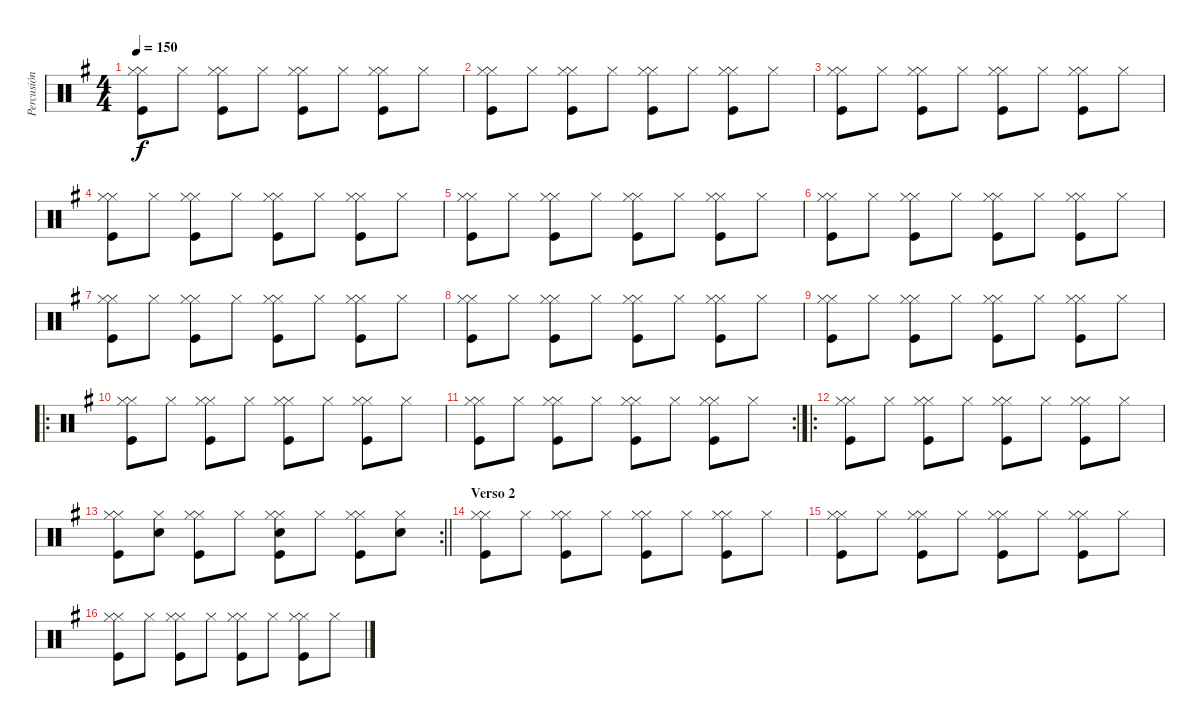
\track ("Percusión" "Percusión") {instrument percussion}
\staff {score}
\articulation defaults
\ts (4 4)
\tempo 150
\clef neutral
\ks g
("Hi-Hat (closed)" "Kick (hit)" "Hi-Hat (closed)").8{dy f} "Hi-Hat (closed)".8 ("Hi-Hat (closed)" "Kick (hit)" "Hi-Hat (closed)").8 "Hi-Hat (closed)".8 ("Hi-Hat (closed)" "Kick (hit)" "Hi-Hat (closed)").8 "Hi-Hat (closed)".8 ("Hi-Hat (closed)" "Kick (hit)" "Hi-Hat (closed)").8 "Hi-Hat (closed)".8 |
("Hi-Hat (closed)" "Kick (hit)" "Hi-Hat (closed)").8 "Hi-Hat (closed)".8 ("Hi-Hat (closed)" "Kick (hit)" "Hi-Hat (closed)").8 "Hi-Hat (closed)".8 ("Hi-Hat (closed)" "Kick (hit)" "Hi-Hat (closed)").8 "Hi-Hat (closed)".8 ("Hi-Hat (closed)" "Kick (hit)" "Hi-Hat (closed)").8 "Hi-Hat (closed)".8 |
("Hi-Hat (closed)" "Kick (hit)" "Hi-Hat (closed)").8 "Hi-Hat (closed)".8 ("Hi-Hat (closed)" "Kick (hit)" "Hi-Hat (closed)").8 "Hi-Hat (closed)".8 ("Hi-Hat (closed)" "Kick (hit)" "Hi-Hat (closed)").8 "Hi-Hat (closed)".8 ("Hi-Hat (closed)" "Kick (hit)" "Hi-Hat (closed)").8 "Hi-Hat (closed)".8 |
("Hi-Hat (closed)" "Kick (hit)" "Hi-Hat (closed)").8 "Hi-Hat (closed)".8 ("Hi-Hat (closed)" "Kick (hit)" "Hi-Hat (closed)").8 "Hi-Hat (closed)".8 ("Hi-Hat (closed)" "Kick (hit)" "Hi-Hat (closed)").8 "Hi-Hat (closed)".8 ("Hi-Hat (closed)" "Kick (hit)" "Hi-Hat (closed)").8 "Hi-Hat (closed)".8 |
("Hi-Hat (closed)" "Kick (hit)" "Hi-Hat (closed)").8 "Hi-Hat (closed)".8 ("Hi-Hat (closed)" "Kick (hit)" "Hi-Hat (closed)").8 "Hi-Hat (closed)".8 ("Hi-Hat (closed)" "Kick (hit)" "Hi-Hat (closed)").8 "Hi-Hat (closed)".8 ("Hi-Hat (closed)" "Kick (hit)" "Hi-Hat (closed)").8 "Hi-Hat (closed)".8 |
("Hi-Hat (closed)" "Kick (hit)" "Hi-Hat (closed)").8 "Hi-Hat (closed)".8 ("Hi-Hat (closed)" "Kick (hit)" "Hi-Hat (closed)").8 "Hi-Hat (closed)".8 ("Hi-Hat (closed)" "Kick (hit)" "Hi-Hat (closed)").8 "Hi-Hat (closed)".8 ("Hi-Hat (closed)" "Kick (hit)" "Hi-Hat (closed)").8 "Hi-Hat (closed)".8 |
("Hi-Hat (closed)" "Kick (hit)" "Hi-Hat (closed)").8 "Hi-Hat (closed)".8 ("Hi-Hat (closed)" "Kick (hit)" "Hi-Hat (closed)").8 "Hi-Hat (closed)".8 ("Hi-Hat (closed)" "Kick (hit)" "Hi-Hat (closed)").8 "Hi-Hat (closed)".8 ("Hi-Hat (closed)" "Kick (hit)" "Hi-Hat (closed)").8 "Hi-Hat (closed)".8 |
("Hi-Hat (closed)" "Kick (hit)" "Hi-Hat (closed)").8 "Hi-Hat (closed)".8 ("Hi-Hat (closed)" "Kick (hit)" "Hi-Hat (closed)").8 "Hi-Hat (closed)".8 ("Hi-Hat (closed)" "Kick (hit)" "Hi-Hat (closed)").8 "Hi-Hat (closed)".8 ("Hi-Hat (closed)" "Kick (hit)" "Hi-Hat (closed)").8 "Hi-Hat (closed)".8 |
("Hi-Hat (closed)" "Kick (hit)" "Hi-Hat (closed)").8 "Hi-Hat (closed)".8 ("Hi-Hat (closed)" "Kick (hit)" "Hi-Hat (closed)").8 "Hi-Hat (closed)".8 ("Hi-Hat (closed)" "Kick (hit)" "Hi-Hat (closed)").8 "Hi-Hat (closed)".8 ("Hi-Hat (closed)" "Kick (hit)" "Hi-Hat (closed)").8 "Hi-Hat (closed)".8 |
\ro
("Hi-Hat (closed)" "Kick (hit)" "Hi-Hat (closed)").8 "Hi-Hat (closed)".8 ("Hi-Hat (closed)" "Kick (hit)" "Hi-Hat (closed)").8 "Hi-Hat (closed)".8 ("Hi-Hat (closed)" "Kick (hit)" "Hi-Hat (closed)").8 "Hi-Hat (closed)".8 ("Hi-Hat (closed)" "Kick (hit)" "Hi-Hat (closed)").8 "Hi-Hat (closed)".8 |
\rc 2
("Hi-Hat (closed)" "Kick (hit)" "Hi-Hat (closed)").8 "Hi-Hat (closed)".8 ("Hi-Hat (closed)" "Kick (hit)" "Hi-Hat (closed)").8 "Hi-Hat (closed)".8 ("Hi-Hat (closed)" "Kick (hit)" "Hi-Hat (closed)").8 "Hi-Hat (closed)".8 ("Hi-Hat (closed)" "Kick (hit)" "Hi-Hat (closed)").8 "Hi-Hat (closed)".8 |
\ro
("Hi-Hat (closed)" "Kick (hit)" "Hi-Hat (closed)").8 "Hi-Hat (closed)".8 ("Hi-Hat (closed)" "Kick (hit)" "Hi-Hat (closed)").8 "Hi-Hat (closed)".8 ("Hi-Hat (closed)" "Kick (hit)" "Hi-Hat (closed)").8 "Hi-Hat (closed)".8 ("Hi-Hat (closed)" "Kick (hit)" "Hi-Hat (closed)").8 "Hi-Hat (closed)".8 |
\rc 2
\barLineRight lightlight
("Hi-Hat (closed)" "Kick (hit)" "Hi-Hat (closed)").8 ("Hi-Hat (closed)" "Snare (hit) 2").8 ("Hi-Hat (closed)" "Kick (hit)" "Hi-Hat (closed)").8 "Hi-Hat (closed)".8 ("Hi-Hat (closed)" "Kick (hit)" "Hi-Hat (closed)" "Snare (hit) 2").8 "Hi-Hat (closed)".8 ("Hi-Hat (closed)" "Kick (hit)" "Hi-Hat (closed)").8 ("Hi-Hat (closed)" "Snare (hit) 2").8 |
\section ("" "Verso 2")
("Hi-Hat (closed)" "Kick (hit)" "Hi-Hat (closed)").8 "Hi-Hat (closed)".8 ("Hi-Hat (closed)" "Kick (hit)" "Hi-Hat (closed)").8 "Hi-Hat (closed)".8 ("Hi-Hat (closed)" "Kick (hit)" "Hi-Hat (closed)").8 "Hi-Hat (closed)".8 ("Hi-Hat (closed)" "Kick (hit)" "Hi-Hat (closed)").8 "Hi-Hat (closed)".8 |
("Hi-Hat (closed)" "Kick (hit)" "Hi-Hat (closed)").8 "Hi-Hat (closed)".8 ("Hi-Hat (closed)" "Kick (hit)" "Hi-Hat (closed)").8 "Hi-Hat (closed)".8 ("Hi-Hat (closed)" "Kick (hit)" "Hi-Hat (closed)").8 "Hi-Hat (closed)".8 ("Hi-Hat (closed)" "Kick (hit)" "Hi-Hat (closed)").8 "Hi-Hat (closed)".8 |
("Hi-Hat (closed)" "Kick (hit)" "Hi-Hat (closed)").8 "Hi-Hat (closed)".8 ("Hi-Hat (closed)" "Kick (hit)" "Hi-Hat (closed)").8 "Hi-Hat (closed)".8 ("Hi-Hat (closed)" "Kick (hit)" "Hi-Hat (closed)").8 "Hi-Hat (closed)".8 ("Hi-Hat (closed)" "Kick (hit)" "Hi-Hat (closed)").8 "Hi-Hat (closed)".8
